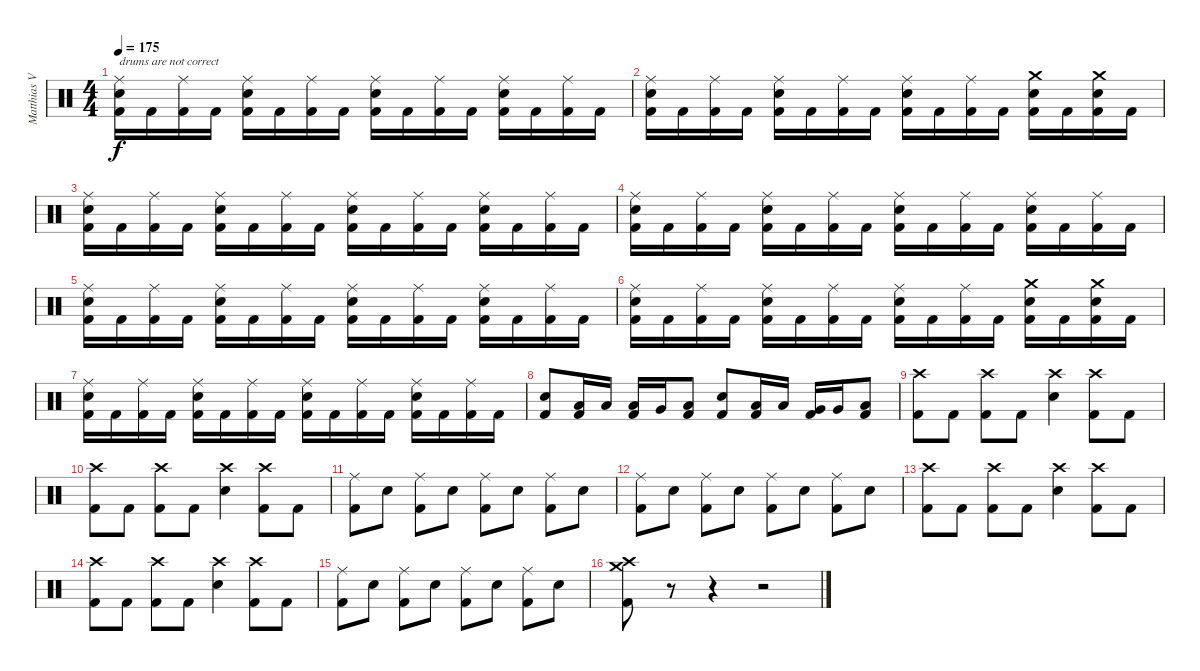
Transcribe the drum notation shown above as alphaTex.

\track ("Matthias Voigt" "Matthias V") {instrument percussion}
\staff {score}
\articulation defaults
\ts (4 4)
\tempo 175
\clef neutral
\ks c
("Ride (middle)" "Electric Snare (hit)" "Kick (hit) 2").16{txt "drums are not correct" dy f} "Kick (hit) 2".16 ("Ride (middle)" "Kick (hit) 2").16 "Kick (hit) 2".16 ("Ride (middle)" "Electric Snare (hit)" "Kick (hit) 2").16 "Kick (hit) 2".16 ("Ride (middle)" "Kick (hit) 2").16 "Kick (hit) 2".16 ("Ride (middle)" "Electric Snare (hit)" "Kick (hit) 2").16 "Kick (hit) 2".16 ("Ride (middle)" "Kick (hit) 2").16 "Kick (hit) 2".16 ("Ride (middle)" "Electric Snare (hit)" "Kick (hit) 2").16 "Kick (hit) 2".16 ("Ride (middle)" "Kick (hit) 2").16 "Kick (hit) 2".16 |
("Ride (middle)" "Electric Snare (hit)" "Kick (hit) 2").16 "Kick (hit) 2".16 ("Ride (middle)" "Kick (hit) 2").16 "Kick (hit) 2".16 ("Ride (middle)" "Electric Snare (hit)" "Kick (hit) 2").16 "Kick (hit) 2".16 ("Ride (middle)" "Kick (hit) 2").16 "Kick (hit) 2".16 ("Ride (middle)" "Electric Snare (hit)" "Kick (hit) 2").16 "Kick (hit) 2".16 ("Ride (middle)" "Kick (hit) 2").16 "Kick (hit) 2".16 ("Crash medium (hit)" "Electric Snare (hit)" "Kick (hit) 2").16 "Kick (hit) 2".16 ("Crash medium (hit)" "Electric Snare (hit)" "Kick (hit) 2").16 "Kick (hit) 2".16 |
("Ride (middle)" "Electric Snare (hit)" "Kick (hit) 2").16 "Kick (hit) 2".16 ("Ride (middle)" "Kick (hit) 2").16 "Kick (hit) 2".16 ("Ride (middle)" "Electric Snare (hit)" "Kick (hit) 2").16 "Kick (hit) 2".16 ("Ride (middle)" "Kick (hit) 2").16 "Kick (hit) 2".16 ("Ride (middle)" "Electric Snare (hit)" "Kick (hit) 2").16 "Kick (hit) 2".16 ("Ride (middle)" "Kick (hit) 2").16 "Kick (hit) 2".16 ("Ride (middle)" "Electric Snare (hit)" "Kick (hit) 2").16 "Kick (hit) 2".16 ("Ride (middle)" "Kick (hit) 2").16 "Kick (hit) 2".16 |
("Ride (middle)" "Electric Snare (hit)" "Kick (hit) 2").16 "Kick (hit) 2".16 ("Ride (middle)" "Kick (hit) 2").16 "Kick (hit) 2".16 ("Ride (middle)" "Electric Snare (hit)" "Kick (hit) 2").16 "Kick (hit) 2".16 ("Ride (middle)" "Kick (hit) 2").16 "Kick (hit) 2".16 ("Ride (middle)" "Electric Snare (hit)" "Kick (hit) 2").16 "Kick (hit) 2".16 ("Ride (middle)" "Kick (hit) 2").16 "Kick (hit) 2".16 ("Ride (middle)" "Electric Snare (hit)" "Kick (hit) 2").16 "Kick (hit) 2".16 ("Ride (middle)" "Kick (hit) 2").16 "Kick (hit) 2".16 |
("Ride (middle)" "Electric Snare (hit)" "Kick (hit) 2").16 "Kick (hit) 2".16 ("Ride (middle)" "Kick (hit) 2").16 "Kick (hit) 2".16 ("Ride (middle)" "Electric Snare (hit)" "Kick (hit) 2").16 "Kick (hit) 2".16 ("Ride (middle)" "Kick (hit) 2").16 "Kick (hit) 2".16 ("Ride (middle)" "Electric Snare (hit)" "Kick (hit) 2").16 "Kick (hit) 2".16 ("Ride (middle)" "Kick (hit) 2").16 "Kick (hit) 2".16 ("Ride (middle)" "Electric Snare (hit)" "Kick (hit) 2").16 "Kick (hit) 2".16 ("Ride (middle)" "Kick (hit) 2").16 "Kick (hit) 2".16 |
("Ride (middle)" "Electric Snare (hit)" "Kick (hit) 2").16 "Kick (hit) 2".16 ("Ride (middle)" "Kick (hit) 2").16 "Kick (hit) 2".16 ("Ride (middle)" "Electric Snare (hit)" "Kick (hit) 2").16 "Kick (hit) 2".16 ("Ride (middle)" "Kick (hit) 2").16 "Kick (hit) 2".16 ("Ride (middle)" "Electric Snare (hit)" "Kick (hit) 2").16 "Kick (hit) 2".16 ("Ride (middle)" "Kick (hit) 2").16 "Kick (hit) 2".16 ("Crash medium (hit)" "Electric Snare (hit)" "Kick (hit) 2").16 "Kick (hit) 2".16 ("Crash medium (hit)" "Electric Snare (hit)" "Kick (hit) 2").16 "Kick (hit) 2".16 |
("Ride (middle)" "Electric Snare (hit)" "Kick (hit) 2").16 "Kick (hit) 2".16 ("Ride (middle)" "Kick (hit) 2").16 "Kick (hit) 2".16 ("Ride (middle)" "Electric Snare (hit)" "Kick (hit) 2").16 "Kick (hit) 2".16 ("Ride (middle)" "Kick (hit) 2").16 "Kick (hit) 2".16 ("Ride (middle)" "Electric Snare (hit)" "Kick (hit) 2").16 "Kick (hit) 2".16 ("Ride (middle)" "Kick (hit) 2").16 "Kick (hit) 2".16 ("Ride (middle)" "Electric Snare (hit)" "Kick (hit) 2").16 "Kick (hit) 2".16 ("Ride (middle)" "Kick (hit) 2").16 "Kick (hit) 2".16 |
("Electric Snare (hit)" "Kick (hit) 2").8 ("Low Tom (hit)" "Kick (hit) 2").16 "Low Tom (hit)".16 ("Low Tom (hit)" "Kick (hit) 2").16 "Very Low Tom (hit)".16 ("Low Tom (hit)" "Kick (hit) 2").8 ("Electric Snare (hit)" "Kick (hit) 2").8 ("Low Tom (hit)" "Kick (hit) 2").16 "Low Tom (hit)".16 ("Very Low Tom (hit)" "Kick (hit) 2").16 "Very Low Tom (hit)".16 ("Low Tom (hit)" "Kick (hit) 2").8 |
("Crash high (hit)" "Kick (hit) 2").8 "Kick (hit) 2".8 ("Crash high (hit)" "Kick (hit) 2").8 "Kick (hit) 2".8 ("Crash high (hit)" "Electric Snare (hit)").4 ("Crash high (hit)" "Kick (hit) 2").8 "Kick (hit) 2".8 |
("Crash high (hit)" "Kick (hit) 2").8 "Kick (hit) 2".8 ("Crash high (hit)" "Kick (hit) 2").8 "Kick (hit) 2".8 ("Crash high (hit)" "Electric Snare (hit)").4 ("Crash high (hit)" "Kick (hit) 2").8 "Kick (hit) 2".8 |
("Ride (middle)" "Kick (hit) 2").8 "Electric Snare (hit)".8 ("Ride (middle)" "Kick (hit) 2").8 "Electric Snare (hit)".8 ("Ride (middle)" "Kick (hit) 2").8 "Electric Snare (hit)".8 ("Ride (middle)" "Kick (hit) 2").8 "Electric Snare (hit)".8 |
("Ride (middle)" "Kick (hit) 2").8 "Electric Snare (hit)".8 ("Ride (middle)" "Kick (hit) 2").8 "Electric Snare (hit)".8 ("Ride (middle)" "Kick (hit) 2").8 "Electric Snare (hit)".8 ("Ride (middle)" "Kick (hit) 2").8 "Electric Snare (hit)".8 |
("Crash high (hit)" "Kick (hit) 2").8 "Kick (hit) 2".8 ("Crash high (hit)" "Kick (hit) 2").8 "Kick (hit) 2".8 ("Crash high (hit)" "Electric Snare (hit)").4 ("Crash high (hit)" "Kick (hit) 2").8 "Kick (hit) 2".8 |
("Crash high (hit)" "Kick (hit) 2").8 "Kick (hit) 2".8 ("Crash high (hit)" "Kick (hit) 2").8 "Kick (hit) 2".8 ("Crash high (hit)" "Electric Snare (hit)").4 ("Crash high (hit)" "Kick (hit) 2").8 "Kick (hit) 2".8 |
("Ride (middle)" "Kick (hit) 2").8 "Electric Snare (hit)".8 ("Ride (middle)" "Kick (hit) 2").8 "Electric Snare (hit)".8 ("Ride (middle)" "Kick (hit) 2").8 "Electric Snare (hit)".8 ("Ride (middle)" "Kick (hit) 2").8 "Electric Snare (hit)".8 |
("Crash medium (hit)" "Crash high (hit)" "Kick (hit) 2").8 r.8 r.4 r.2
